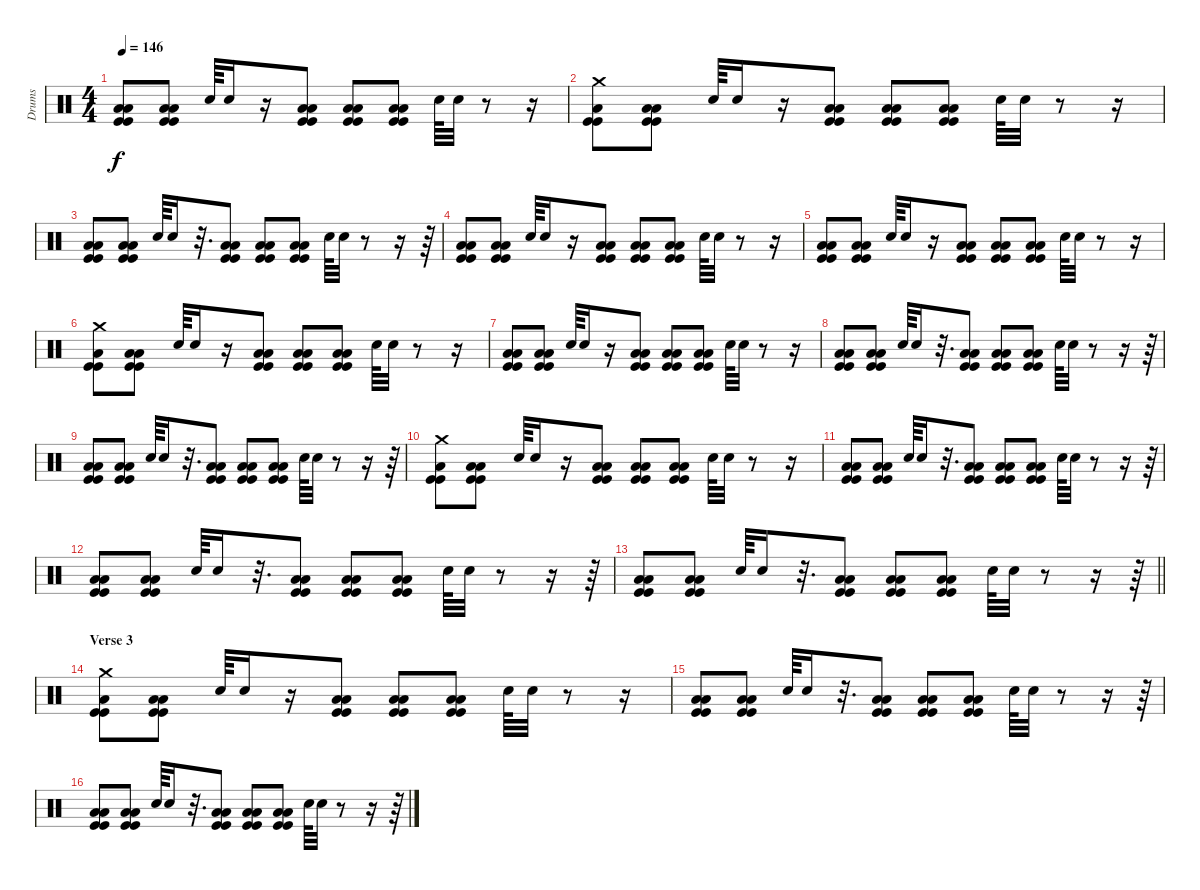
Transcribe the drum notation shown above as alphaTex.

\track ("Drums" "Drums") {instrument percussion}
\staff {score}
\articulation defaults
\ts (4 4)
\tempo 146
\clef neutral
\ks c
("Low Tom (hit)" "Low Floor Tom (hit)" "Kick (hit)" "Kick (hit)").8{dy f} ("Low Tom (hit)" "Low Floor Tom (hit)" "Kick (hit)" "Kick (hit)").8 "Snare (hit) 2".64 "Snare (hit) 2".16 r.16 ("Low Tom (hit)" "Low Floor Tom (hit)" "Kick (hit)" "Kick (hit)").8 ("Low Tom (hit)" "Low Floor Tom (hit)" "Kick (hit)" "Kick (hit)").8 ("Low Tom (hit)" "Low Floor Tom (hit)" "Kick (hit)" "Kick (hit)").8 "Snare (hit) 2".64 "Snare (hit) 2".32 r.8 r.16 |
("Crash medium (hit)" "Low Tom (hit)" "Kick (hit)" "Kick (hit)").8 ("Low Tom (hit)" "Low Floor Tom (hit)" "Kick (hit)" "Kick (hit)").8 "Snare (hit) 2".64 "Snare (hit) 2".16 r.16 ("Low Tom (hit)" "Low Floor Tom (hit)" "Kick (hit)" "Kick (hit)").8 ("Low Tom (hit)" "Low Floor Tom (hit)" "Kick (hit)" "Kick (hit)").8 ("Low Tom (hit)" "Low Floor Tom (hit)" "Kick (hit)" "Kick (hit)").8 "Snare (hit) 2".64 "Snare (hit) 2".32 r.8 r.16 |
("Low Tom (hit)" "Low Floor Tom (hit)" "Kick (hit)" "Kick (hit)").8 ("Low Tom (hit)" "Low Floor Tom (hit)" "Kick (hit)" "Kick (hit)").8 "Snare (hit) 2".64 "Snare (hit) 2".16 r.32{d} ("Low Tom (hit)" "Low Floor Tom (hit)" "Kick (hit)" "Kick (hit)").8 ("Low Tom (hit)" "Low Floor Tom (hit)" "Kick (hit)" "Kick (hit)").8 ("Low Tom (hit)" "Low Floor Tom (hit)" "Kick (hit)" "Kick (hit)").8 "Snare (hit) 2".64 "Snare (hit) 2".32 r.8 r.16 r.64 |
("Low Tom (hit)" "Low Floor Tom (hit)" "Kick (hit)" "Kick (hit)").8 ("Low Tom (hit)" "Low Floor Tom (hit)" "Kick (hit)" "Kick (hit)").8 "Snare (hit) 2".64 "Snare (hit) 2".16 r.16 ("Low Tom (hit)" "Low Floor Tom (hit)" "Kick (hit)" "Kick (hit)").8 ("Low Tom (hit)" "Low Floor Tom (hit)" "Kick (hit)" "Kick (hit)").8 ("Low Tom (hit)" "Low Floor Tom (hit)" "Kick (hit)" "Kick (hit)").8 "Snare (hit) 2".64 "Snare (hit) 2".32 r.8 r.16 |
("Low Tom (hit)" "Low Floor Tom (hit)" "Kick (hit)" "Kick (hit)").8 ("Low Tom (hit)" "Low Floor Tom (hit)" "Kick (hit)" "Kick (hit)").8 "Snare (hit) 2".64 "Snare (hit) 2".16 r.16 ("Low Tom (hit)" "Low Floor Tom (hit)" "Kick (hit)" "Kick (hit)").8 ("Low Tom (hit)" "Low Floor Tom (hit)" "Kick (hit)" "Kick (hit)").8 ("Low Tom (hit)" "Low Floor Tom (hit)" "Kick (hit)" "Kick (hit)").8 "Snare (hit) 2".64 "Snare (hit) 2".32 r.8 r.16 |
("Crash medium (hit)" "Low Tom (hit)" "Kick (hit)" "Kick (hit)").8 ("Low Tom (hit)" "Low Floor Tom (hit)" "Kick (hit)" "Kick (hit)").8 "Snare (hit) 2".64 "Snare (hit) 2".16 r.16 ("Low Tom (hit)" "Low Floor Tom (hit)" "Kick (hit)" "Kick (hit)").8 ("Low Tom (hit)" "Low Floor Tom (hit)" "Kick (hit)" "Kick (hit)").8 ("Low Tom (hit)" "Low Floor Tom (hit)" "Kick (hit)" "Kick (hit)").8 "Snare (hit) 2".64 "Snare (hit) 2".32 r.8 r.16 |
("Low Tom (hit)" "Low Floor Tom (hit)" "Kick (hit)" "Kick (hit)").8 ("Low Tom (hit)" "Low Floor Tom (hit)" "Kick (hit)" "Kick (hit)").8 "Snare (hit) 2".64 "Snare (hit) 2".16 r.16 ("Low Tom (hit)" "Low Floor Tom (hit)" "Kick (hit)" "Kick (hit)").8 ("Low Tom (hit)" "Low Floor Tom (hit)" "Kick (hit)" "Kick (hit)").8 ("Low Tom (hit)" "Low Floor Tom (hit)" "Kick (hit)" "Kick (hit)").8 "Snare (hit) 2".64 "Snare (hit) 2".32 r.8 r.16 |
("Low Tom (hit)" "Low Floor Tom (hit)" "Kick (hit)" "Kick (hit)").8 ("Low Tom (hit)" "Low Floor Tom (hit)" "Kick (hit)" "Kick (hit)").8 "Snare (hit) 2".64 "Snare (hit) 2".16 r.32{d} ("Low Tom (hit)" "Low Floor Tom (hit)" "Kick (hit)" "Kick (hit)").8 ("Low Tom (hit)" "Low Floor Tom (hit)" "Kick (hit)" "Kick (hit)").8 ("Low Tom (hit)" "Low Floor Tom (hit)" "Kick (hit)" "Kick (hit)").8 "Snare (hit) 2".64 "Snare (hit) 2".32 r.8 r.16 r.64 |
("Low Tom (hit)" "Low Floor Tom (hit)" "Kick (hit)" "Kick (hit)").8 ("Low Tom (hit)" "Low Floor Tom (hit)" "Kick (hit)" "Kick (hit)").8 "Snare (hit) 2".64 "Snare (hit) 2".16 r.32{d} ("Low Tom (hit)" "Low Floor Tom (hit)" "Kick (hit)" "Kick (hit)").8 ("Low Tom (hit)" "Low Floor Tom (hit)" "Kick (hit)" "Kick (hit)").8 ("Low Tom (hit)" "Low Floor Tom (hit)" "Kick (hit)" "Kick (hit)").8 "Snare (hit) 2".64 "Snare (hit) 2".32 r.8 r.16 r.64 |
("Crash medium (hit)" "Low Tom (hit)" "Kick (hit)" "Kick (hit)").8 ("Low Tom (hit)" "Low Floor Tom (hit)" "Kick (hit)" "Kick (hit)").8 "Snare (hit) 2".64 "Snare (hit) 2".16 r.16 ("Low Tom (hit)" "Low Floor Tom (hit)" "Kick (hit)" "Kick (hit)").8 ("Low Tom (hit)" "Low Floor Tom (hit)" "Kick (hit)" "Kick (hit)").8 ("Low Tom (hit)" "Low Floor Tom (hit)" "Kick (hit)" "Kick (hit)").8 "Snare (hit) 2".64 "Snare (hit) 2".32 r.8 r.16 |
("Low Tom (hit)" "Low Floor Tom (hit)" "Kick (hit)" "Kick (hit)").8 ("Low Tom (hit)" "Low Floor Tom (hit)" "Kick (hit)" "Kick (hit)").8 "Snare (hit) 2".64 "Snare (hit) 2".16 r.32{d} ("Low Tom (hit)" "Low Floor Tom (hit)" "Kick (hit)" "Kick (hit)").8 ("Low Tom (hit)" "Low Floor Tom (hit)" "Kick (hit)" "Kick (hit)").8 ("Low Tom (hit)" "Low Floor Tom (hit)" "Kick (hit)" "Kick (hit)").8 "Snare (hit) 2".64 "Snare (hit) 2".32 r.8 r.16 r.64 |
("Low Tom (hit)" "Low Floor Tom (hit)" "Kick (hit)" "Kick (hit)").8 ("Low Tom (hit)" "Low Floor Tom (hit)" "Kick (hit)" "Kick (hit)").8 "Snare (hit) 2".64 "Snare (hit) 2".16 r.32{d} ("Low Tom (hit)" "Low Floor Tom (hit)" "Kick (hit)" "Kick (hit)").8 ("Low Tom (hit)" "Low Floor Tom (hit)" "Kick (hit)" "Kick (hit)").8 ("Low Tom (hit)" "Low Floor Tom (hit)" "Kick (hit)" "Kick (hit)").8 "Snare (hit) 2".64 "Snare (hit) 2".32 r.8 r.16 r.64 |
\barLineRight lightlight
("Low Tom (hit)" "Low Floor Tom (hit)" "Kick (hit)" "Kick (hit)").8 ("Low Tom (hit)" "Low Floor Tom (hit)" "Kick (hit)" "Kick (hit)").8 "Snare (hit) 2".64 "Snare (hit) 2".16 r.32{d} ("Low Tom (hit)" "Low Floor Tom (hit)" "Kick (hit)" "Kick (hit)").8 ("Low Tom (hit)" "Low Floor Tom (hit)" "Kick (hit)" "Kick (hit)").8 ("Low Tom (hit)" "Low Floor Tom (hit)" "Kick (hit)" "Kick (hit)").8 "Snare (hit) 2".64 "Snare (hit) 2".32 r.8 r.16 r.64 |
\section ("" "Verse 3")
("Crash medium (hit)" "Low Tom (hit)" "Kick (hit)" "Kick (hit)").8 ("Low Tom (hit)" "Low Floor Tom (hit)" "Kick (hit)" "Kick (hit)").8 "Snare (hit) 2".64 "Snare (hit) 2".16 r.16 ("Low Tom (hit)" "Low Floor Tom (hit)" "Kick (hit)" "Kick (hit)").8 ("Low Tom (hit)" "Low Floor Tom (hit)" "Kick (hit)" "Kick (hit)").8 ("Low Tom (hit)" "Low Floor Tom (hit)" "Kick (hit)" "Kick (hit)").8 "Snare (hit) 2".64 "Snare (hit) 2".32 r.8 r.16 |
("Low Tom (hit)" "Low Floor Tom (hit)" "Kick (hit)" "Kick (hit)").8 ("Low Tom (hit)" "Low Floor Tom (hit)" "Kick (hit)" "Kick (hit)").8 "Snare (hit) 2".64 "Snare (hit) 2".16 r.32{d} ("Low Tom (hit)" "Low Floor Tom (hit)" "Kick (hit)" "Kick (hit)").8 ("Low Tom (hit)" "Low Floor Tom (hit)" "Kick (hit)" "Kick (hit)").8 ("Low Tom (hit)" "Low Floor Tom (hit)" "Kick (hit)" "Kick (hit)").8 "Snare (hit) 2".64 "Snare (hit) 2".32 r.8 r.16 r.64 |
("Low Tom (hit)" "Low Floor Tom (hit)" "Kick (hit)" "Kick (hit)").8 ("Low Tom (hit)" "Low Floor Tom (hit)" "Kick (hit)" "Kick (hit)").8 "Snare (hit) 2".64 "Snare (hit) 2".16 r.32{d} ("Low Tom (hit)" "Low Floor Tom (hit)" "Kick (hit)" "Kick (hit)").8 ("Low Tom (hit)" "Low Floor Tom (hit)" "Kick (hit)" "Kick (hit)").8 ("Low Tom (hit)" "Low Floor Tom (hit)" "Kick (hit)" "Kick (hit)").8 "Snare (hit) 2".64 "Snare (hit) 2".32 r.8 r.16 r.64
